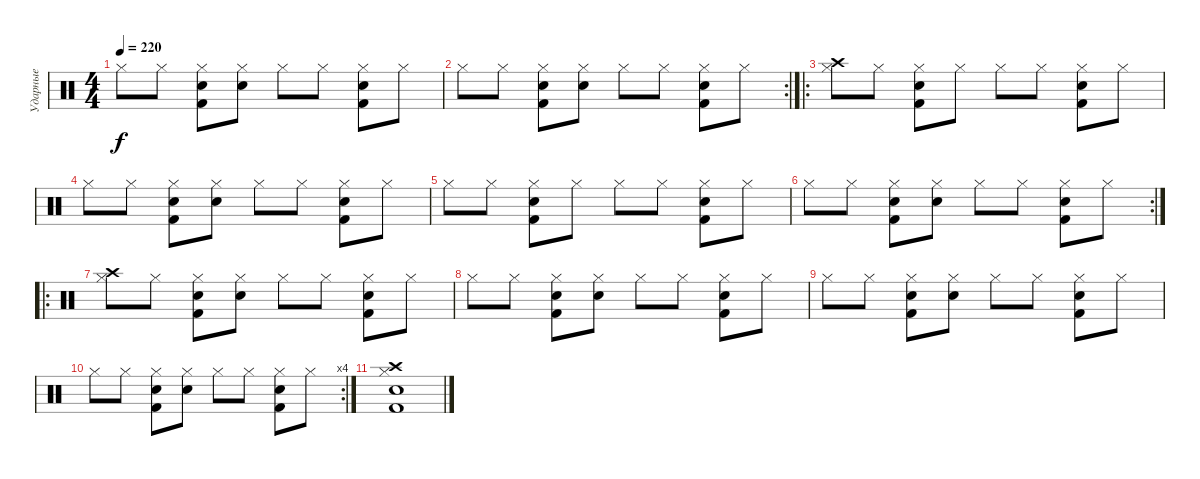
\track ("Ударные" "Ударные") {instrument percussion}
\staff {score}
\articulation defaults
\ts (4 4)
\tempo 220
\clef neutral
\ks c "Hi-Hat (closed)".8{dy f} "Hi-Hat (closed)".8
("Hi-Hat (closed)" "Kick (hit) 2" "Electric Snare (hit)").8 ("Hi-Hat (closed)" "Electric Snare (hit)").8 "Hi-Hat (closed)".8 "Hi-Hat (closed)".8 ("Hi-Hat (closed)" "Kick (hit) 2" "Electric Snare (hit)").8 "Hi-Hat (closed)".8 |
\rc 2 "Hi-Hat (closed)".8 "Hi-Hat (closed)".8
("Hi-Hat (closed)" "Kick (hit) 2" "Electric Snare (hit)").8 ("Hi-Hat (closed)" "Electric Snare (hit)").8 "Hi-Hat (closed)".8 "Hi-Hat (closed)".8 ("Hi-Hat (closed)" "Kick (hit) 2" "Electric Snare (hit)").8 "Hi-Hat (closed)".8 |
\ro
("Crash high (hit)" "Hi-Hat (closed)").8 "Hi-Hat (closed)".8 ("Hi-Hat (closed)" "Kick (hit) 2" "Electric Snare (hit)").8 "Hi-Hat (closed)".8 "Hi-Hat (closed)".8 "Hi-Hat (closed)".8 ("Hi-Hat (closed)" "Kick (hit) 2" "Electric Snare (hit)").8 "Hi-Hat (closed)".8 |
"Hi-Hat (closed)".8 "Hi-Hat (closed)".8 ("Hi-Hat (closed)" "Kick (hit) 2" "Electric Snare (hit)").8 ("Hi-Hat (closed)" "Electric Snare (hit)").8 "Hi-Hat (closed)".8 "Hi-Hat (closed)".8 ("Hi-Hat (closed)" "Kick (hit) 2" "Electric Snare (hit)").8 "Hi-Hat (closed)".8 |
"Hi-Hat (closed)".8 "Hi-Hat (closed)".8 ("Hi-Hat (closed)" "Kick (hit) 2" "Electric Snare (hit)").8 "Hi-Hat (closed)".8 "Hi-Hat (closed)".8 "Hi-Hat (closed)".8 ("Hi-Hat (closed)" "Kick (hit) 2" "Electric Snare (hit)").8 "Hi-Hat (closed)".8 |
\rc 2 "Hi-Hat (closed)".8 "Hi-Hat (closed)".8
("Hi-Hat (closed)" "Kick (hit) 2" "Electric Snare (hit)").8 ("Hi-Hat (closed)" "Electric Snare (hit)").8 "Hi-Hat (closed)".8 "Hi-Hat (closed)".8 ("Hi-Hat (closed)" "Kick (hit) 2" "Electric Snare (hit)").8 "Hi-Hat (closed)".8 |
\ro
("Crash high (hit)" "Hi-Hat (closed)").8 "Hi-Hat (closed)".8 ("Hi-Hat (closed)" "Kick (hit) 2" "Electric Snare (hit)").8 ("Hi-Hat (closed)" "Electric Snare (hit)").8 "Hi-Hat (closed)".8 "Hi-Hat (closed)".8 ("Hi-Hat (closed)" "Kick (hit) 2" "Electric Snare (hit)").8 "Hi-Hat (closed)".8 |
"Hi-Hat (closed)".8 "Hi-Hat (closed)".8 ("Hi-Hat (closed)" "Kick (hit) 2" "Electric Snare (hit)").8 ("Hi-Hat (closed)" "Electric Snare (hit)").8 "Hi-Hat (closed)".8 "Hi-Hat (closed)".8 ("Hi-Hat (closed)" "Kick (hit) 2" "Electric Snare (hit)").8 "Hi-Hat (closed)".8 |
"Hi-Hat (closed)".8 "Hi-Hat (closed)".8 ("Hi-Hat (closed)" "Kick (hit) 2" "Electric Snare (hit)").8 ("Hi-Hat (closed)" "Electric Snare (hit)").8 "Hi-Hat (closed)".8 "Hi-Hat (closed)".8 ("Hi-Hat (closed)" "Kick (hit) 2" "Electric Snare (hit)").8 "Hi-Hat (closed)".8 |
\rc 4 "Hi-Hat (closed)".8 "Hi-Hat (closed)".8
("Hi-Hat (closed)" "Kick (hit) 2" "Electric Snare (hit)").8 ("Hi-Hat (closed)" "Electric Snare (hit)").8 "Hi-Hat (closed)".8 "Hi-Hat (closed)".8 ("Hi-Hat (closed)" "Kick (hit) 2" "Electric Snare (hit)").8 "Hi-Hat (closed)".8 |
("Crash high (hit)" "Hi-Hat (closed)" "Kick (hit) 2" "Electric Snare (hit)").1
